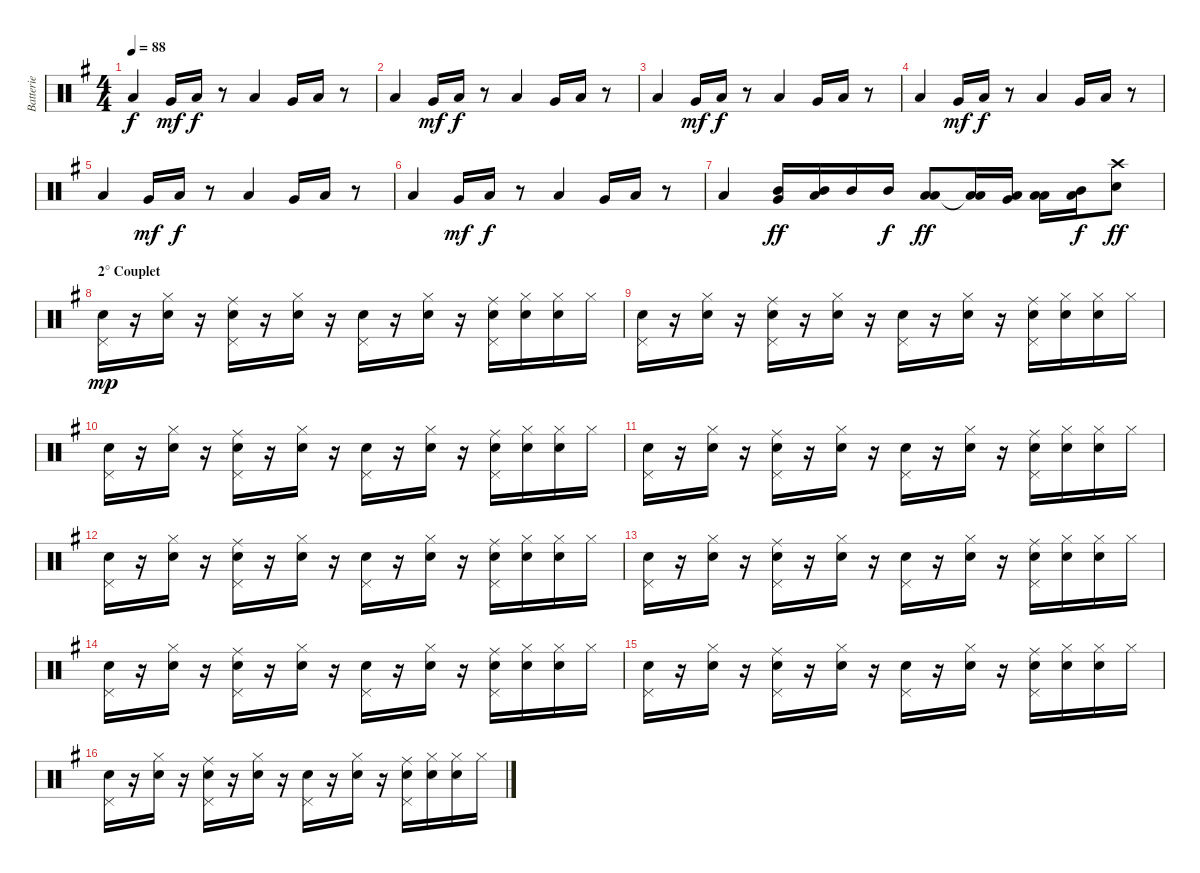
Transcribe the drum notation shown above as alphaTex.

\track ("Batterie" "Batterie") {instrument percussion}
\staff {score}
\articulation defaults
\ts (4 4)
\tempo 88
\clef neutral
\ks g "Low Floor Tom (hit)".4{dy f} "Very Low Tom (hit)".16{dy mf} "Low Floor Tom (hit)".16{dy f}
r.8 "Low Floor Tom (hit)".4 "Very Low Tom (hit)".16 "Low Floor Tom (hit)".16 r.8 |
"Low Floor Tom (hit)".4 "Very Low Tom (hit)".16{dy mf} "Low Floor Tom (hit)".16{dy f} r.8 "Low Floor Tom (hit)".4 "Very Low Tom (hit)".16 "Low Floor Tom (hit)".16 r.8 |
"Low Floor Tom (hit)".4 "Very Low Tom (hit)".16{dy mf} "Low Floor Tom (hit)".16{dy f} r.8 "Low Floor Tom (hit)".4 "Very Low Tom (hit)".16 "Low Floor Tom (hit)".16 r.8 |
"Low Floor Tom (hit)".4 "Very Low Tom (hit)".16{dy mf} "Low Floor Tom (hit)".16{dy f} r.8 "Low Floor Tom (hit)".4 "Very Low Tom (hit)".16 "Low Floor Tom (hit)".16 r.8 |
"Low Floor Tom (hit)".4 "Very Low Tom (hit)".16{dy mf} "Low Floor Tom (hit)".16{dy f} r.8 "Low Floor Tom (hit)".4 "Very Low Tom (hit)".16 "Low Floor Tom (hit)".16 r.8 |
"Low Floor Tom (hit)".4 "Very Low Tom (hit)".16{dy mf} "Low Floor Tom (hit)".16{dy f} r.8 "Low Floor Tom (hit)".4 "Very Low Tom (hit)".16 "Low Floor Tom (hit)".16 r.8 |
"Low Floor Tom (hit)".4 ("Very Low Tom (hit)" "Mid Tom (hit)").16{dy ff} ("Low Floor Tom (hit)" "Mid Tom (hit)").16 "Mid Tom (hit)".16 "Mid Tom (hit)".16{dy f} ("Low Floor Tom (hit)" "Low Tom (hit)").8{dy ff} ("Low Floor Tom (hit)"{t} "Low Tom (hit)").16 ("Very Low Tom (hit)" "Low Tom (hit)").16 ("Low Floor Tom (hit)" "Low Tom (hit)").16 ("Mid Tom (hit)" "Low Tom (hit)").16{dy f} ("Snare (hit) 2" "Crash high (hit)").8{dy ff} |
\section ("" "2° Couplet")
("Electric Snare (hit)" "Pedal Hi-Hat (hit)").16{dy mp} r.16 ("Electric Snare (hit)" "Hi-Hat (closed)").16 r.16 ("Electric Snare (hit)" "Pedal Hi-Hat (hit)" "Ride (middle)").16 r.16 ("Electric Snare (hit)" "Hi-Hat (closed)").16 r.16 ("Electric Snare (hit)" "Pedal Hi-Hat (hit)").16 r.16 ("Electric Snare (hit)" "Hi-Hat (closed)").16 r.16 ("Electric Snare (hit)" "Pedal Hi-Hat (hit)" "Ride (middle)").16 ("Electric Snare (hit)" "Hi-Hat (closed)").16 ("Electric Snare (hit)" "Hi-Hat (closed)").16 "Hi-Hat (closed)".16 |
("Electric Snare (hit)" "Pedal Hi-Hat (hit)").16 r.16 ("Electric Snare (hit)" "Hi-Hat (closed)").16 r.16 ("Electric Snare (hit)" "Pedal Hi-Hat (hit)" "Ride (middle)").16 r.16 ("Electric Snare (hit)" "Hi-Hat (closed)").16 r.16 ("Electric Snare (hit)" "Pedal Hi-Hat (hit)").16 r.16 ("Electric Snare (hit)" "Hi-Hat (closed)").16 r.16 ("Electric Snare (hit)" "Pedal Hi-Hat (hit)" "Ride (middle)").16 ("Electric Snare (hit)" "Hi-Hat (closed)").16 ("Electric Snare (hit)" "Hi-Hat (closed)").16 "Hi-Hat (closed)".16 |
("Electric Snare (hit)" "Pedal Hi-Hat (hit)").16 r.16 ("Electric Snare (hit)" "Hi-Hat (closed)").16 r.16 ("Electric Snare (hit)" "Pedal Hi-Hat (hit)" "Ride (middle)").16 r.16 ("Electric Snare (hit)" "Hi-Hat (closed)").16 r.16 ("Electric Snare (hit)" "Pedal Hi-Hat (hit)").16 r.16 ("Electric Snare (hit)" "Hi-Hat (closed)").16 r.16 ("Electric Snare (hit)" "Pedal Hi-Hat (hit)" "Ride (middle)").16 ("Electric Snare (hit)" "Hi-Hat (closed)").16 ("Electric Snare (hit)" "Hi-Hat (closed)").16 "Hi-Hat (closed)".16 |
("Electric Snare (hit)" "Pedal Hi-Hat (hit)").16 r.16 ("Electric Snare (hit)" "Hi-Hat (closed)").16 r.16 ("Electric Snare (hit)" "Pedal Hi-Hat (hit)" "Ride (middle)").16 r.16 ("Electric Snare (hit)" "Hi-Hat (closed)").16 r.16 ("Electric Snare (hit)" "Pedal Hi-Hat (hit)").16 r.16 ("Electric Snare (hit)" "Hi-Hat (closed)").16 r.16 ("Electric Snare (hit)" "Pedal Hi-Hat (hit)" "Ride (middle)").16 ("Electric Snare (hit)" "Hi-Hat (closed)").16 ("Electric Snare (hit)" "Hi-Hat (closed)").16 "Hi-Hat (closed)".16 |
("Electric Snare (hit)" "Pedal Hi-Hat (hit)").16 r.16 ("Electric Snare (hit)" "Hi-Hat (closed)").16 r.16 ("Electric Snare (hit)" "Pedal Hi-Hat (hit)" "Ride (middle)").16 r.16 ("Electric Snare (hit)" "Hi-Hat (closed)").16 r.16 ("Electric Snare (hit)" "Pedal Hi-Hat (hit)").16 r.16 ("Electric Snare (hit)" "Hi-Hat (closed)").16 r.16 ("Electric Snare (hit)" "Pedal Hi-Hat (hit)" "Ride (middle)").16 ("Electric Snare (hit)" "Hi-Hat (closed)").16 ("Electric Snare (hit)" "Hi-Hat (closed)").16 "Hi-Hat (closed)".16 |
("Electric Snare (hit)" "Pedal Hi-Hat (hit)").16 r.16 ("Electric Snare (hit)" "Hi-Hat (closed)").16 r.16 ("Electric Snare (hit)" "Pedal Hi-Hat (hit)" "Ride (middle)").16 r.16 ("Electric Snare (hit)" "Hi-Hat (closed)").16 r.16 ("Electric Snare (hit)" "Pedal Hi-Hat (hit)").16 r.16 ("Electric Snare (hit)" "Hi-Hat (closed)").16 r.16 ("Electric Snare (hit)" "Pedal Hi-Hat (hit)" "Ride (middle)").16 ("Electric Snare (hit)" "Hi-Hat (closed)").16 ("Electric Snare (hit)" "Hi-Hat (closed)").16 "Hi-Hat (closed)".16 |
("Electric Snare (hit)" "Pedal Hi-Hat (hit)").16 r.16 ("Electric Snare (hit)" "Hi-Hat (closed)").16 r.16 ("Electric Snare (hit)" "Pedal Hi-Hat (hit)" "Ride (middle)").16 r.16 ("Electric Snare (hit)" "Hi-Hat (closed)").16 r.16 ("Electric Snare (hit)" "Pedal Hi-Hat (hit)").16 r.16 ("Electric Snare (hit)" "Hi-Hat (closed)").16 r.16 ("Electric Snare (hit)" "Pedal Hi-Hat (hit)" "Ride (middle)").16 ("Electric Snare (hit)" "Hi-Hat (closed)").16 ("Electric Snare (hit)" "Hi-Hat (closed)").16 "Hi-Hat (closed)".16 |
("Electric Snare (hit)" "Pedal Hi-Hat (hit)").16 r.16 ("Electric Snare (hit)" "Hi-Hat (closed)").16 r.16 ("Electric Snare (hit)" "Pedal Hi-Hat (hit)" "Ride (middle)").16 r.16 ("Electric Snare (hit)" "Hi-Hat (closed)").16 r.16 ("Electric Snare (hit)" "Pedal Hi-Hat (hit)").16 r.16 ("Electric Snare (hit)" "Hi-Hat (closed)").16 r.16 ("Electric Snare (hit)" "Pedal Hi-Hat (hit)" "Ride (middle)").16 ("Electric Snare (hit)" "Hi-Hat (closed)").16 ("Electric Snare (hit)" "Hi-Hat (closed)").16 "Hi-Hat (closed)".16 |
("Electric Snare (hit)" "Pedal Hi-Hat (hit)").16 r.16 ("Electric Snare (hit)" "Hi-Hat (closed)").16 r.16 ("Electric Snare (hit)" "Pedal Hi-Hat (hit)" "Ride (middle)").16 r.16 ("Electric Snare (hit)" "Hi-Hat (closed)").16 r.16 ("Electric Snare (hit)" "Pedal Hi-Hat (hit)").16 r.16 ("Electric Snare (hit)" "Hi-Hat (closed)").16 r.16 ("Electric Snare (hit)" "Pedal Hi-Hat (hit)" "Ride (middle)").16 ("Electric Snare (hit)" "Hi-Hat (closed)").16 ("Electric Snare (hit)" "Hi-Hat (closed)").16 "Hi-Hat (closed)".16
